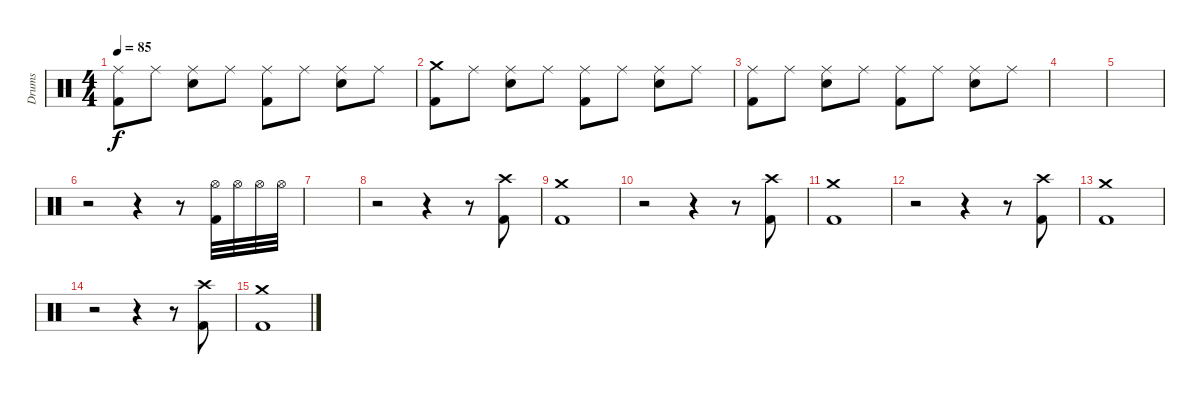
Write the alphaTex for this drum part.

\track ("Drums" "Drums") {instrument percussion}
\staff {score}
\articulation defaults
\ts (4 4)
\tempo 85
\clef neutral
\ks c
("Ride (middle)" "Kick (hit) 2").8{dy f} "Ride (middle)".8 ("Ride (middle)" "Snare (hit) 2").8 "Ride (middle)".8 ("Ride (middle)" "Kick (hit) 2").8 "Ride (middle)".8 ("Ride (middle)" "Snare (hit) 2").8 "Ride (middle)".8 |
("Crash medium (hit)" "Kick (hit) 2").8 "Ride (middle)".8 ("Ride (middle)" "Snare (hit) 2").8 "Ride (middle)".8 ("Ride (middle)" "Kick (hit) 2").8 "Ride (middle)".8 ("Ride (middle)" "Snare (hit) 2").8 "Ride (middle)".8 |
("Ride (middle)" "Kick (hit) 2").8 "Ride (middle)".8 ("Ride (middle)" "Snare (hit) 2").8 "Ride (middle)".8 ("Ride (middle)" "Kick (hit) 2").8 "Ride (middle)".8 ("Ride (middle)" "Snare (hit) 2").8 "Ride (middle)".8 |
|
|
r.2 r.4 r.8 ("Hi-Hat (open)" "Kick (hit) 2").32 "Hi-Hat (open)".32 "Hi-Hat (open)".32 "Hi-Hat (open)".32 |
|
r.2 r.4 r.8 ("Crash high (hit)" "Kick (hit) 2").8 |
("Crash medium (hit)" "Kick (hit) 2").1 |
r.2 r.4 r.8 ("Crash high (hit)" "Kick (hit) 2").8 |
("Crash medium (hit)" "Kick (hit) 2").1{volume 0} |
r.2 r.4 r.8 ("Crash high (hit)" "Kick (hit) 2").8 |
("Crash medium (hit)" "Kick (hit) 2").1 |
r.2 r.4 r.8 ("Crash high (hit)" "Kick (hit) 2").8 |
("Crash medium (hit)" "Kick (hit) 2").1
